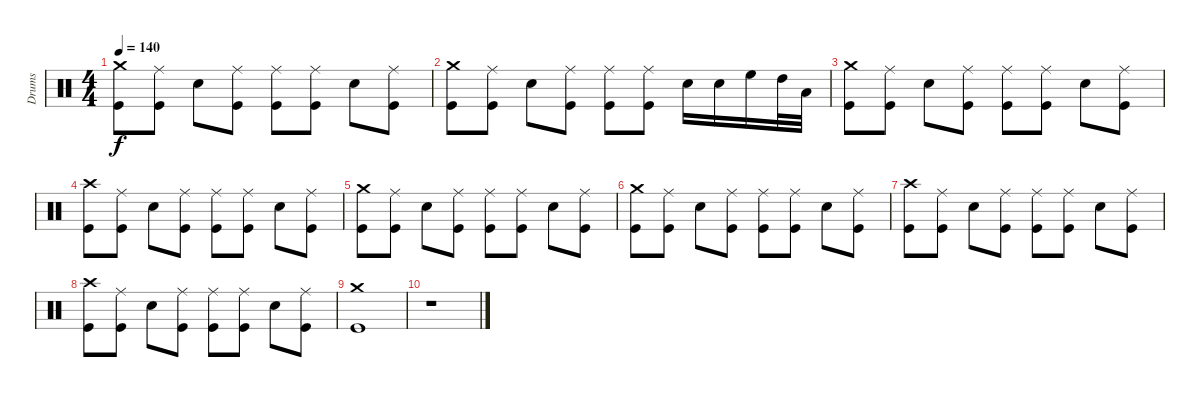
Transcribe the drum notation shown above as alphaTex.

\track ("Drums" "Drums") {instrument percussion}
\staff {score}
\articulation defaults
\ts (4 4)
\tempo 140
\clef neutral
\ks c
("Crash medium (hit)" "Kick (hit)").8{dy f} ("Ride (middle)" "Kick (hit)").8 "Electric Snare (hit)".8 ("Ride (middle)" "Kick (hit)").8 ("Ride (middle)" "Kick (hit)").8 ("Ride (middle)" "Kick (hit)").8 "Electric Snare (hit)".8 ("Ride (middle)" "Kick (hit)").8 |
("Crash medium (hit)" "Kick (hit)").8 ("Ride (middle)" "Kick (hit)").8 "Electric Snare (hit)".8 ("Ride (middle)" "Kick (hit)").8 ("Ride (middle)" "Kick (hit)").8 ("Ride (middle)" "Kick (hit)").8 "Electric Snare (hit)".16 "Electric Snare (hit)".16 "High Floor Tom (hit)".16 "High Tom (hit)".32 "Low Tom (hit)".32 |
("Crash medium (hit)" "Kick (hit)").8 ("Ride (middle)" "Kick (hit)").8 "Electric Snare (hit)".8 ("Ride (middle)" "Kick (hit)").8 ("Ride (middle)" "Kick (hit)").8 ("Ride (middle)" "Kick (hit)").8 "Electric Snare (hit)".8 ("Ride (middle)" "Kick (hit)").8 |
("Crash high (hit)" "Kick (hit)").8 ("Ride (middle)" "Kick (hit)").8 "Electric Snare (hit)".8 ("Ride (middle)" "Kick (hit)").8 ("Ride (middle)" "Kick (hit)").8 ("Ride (middle)" "Kick (hit)").8 "Electric Snare (hit)".8 ("Ride (middle)" "Kick (hit)").8 |
("Crash medium (hit)" "Kick (hit)").8 ("Ride (middle)" "Kick (hit)").8 "Electric Snare (hit)".8 ("Ride (middle)" "Kick (hit)").8 ("Ride (middle)" "Kick (hit)").8 ("Ride (middle)" "Kick (hit)").8 "Electric Snare (hit)".8 ("Ride (middle)" "Kick (hit)").8 |
("Crash medium (hit)" "Kick (hit)").8 ("Ride (middle)" "Kick (hit)").8 "Electric Snare (hit)".8 ("Ride (middle)" "Kick (hit)").8 ("Ride (middle)" "Kick (hit)").8 ("Ride (middle)" "Kick (hit)").8 "Electric Snare (hit)".8 ("Ride (middle)" "Kick (hit)").8 |
("Crash high (hit)" "Kick (hit)").8 ("Ride (middle)" "Kick (hit)").8 "Electric Snare (hit)".8 ("Ride (middle)" "Kick (hit)").8 ("Ride (middle)" "Kick (hit)").8 ("Ride (middle)" "Kick (hit)").8 "Electric Snare (hit)".8 ("Ride (middle)" "Kick (hit)").8 |
("Crash high (hit)" "Kick (hit)").8 ("Ride (middle)" "Kick (hit)").8 "Electric Snare (hit)".8 ("Ride (middle)" "Kick (hit)").8 ("Ride (middle)" "Kick (hit)").8 ("Ride (middle)" "Kick (hit)").8 "Electric Snare (hit)".8 ("Ride (middle)" "Kick (hit)").8 |
("Crash medium (hit)" "Kick (hit)").1 |
r.1
